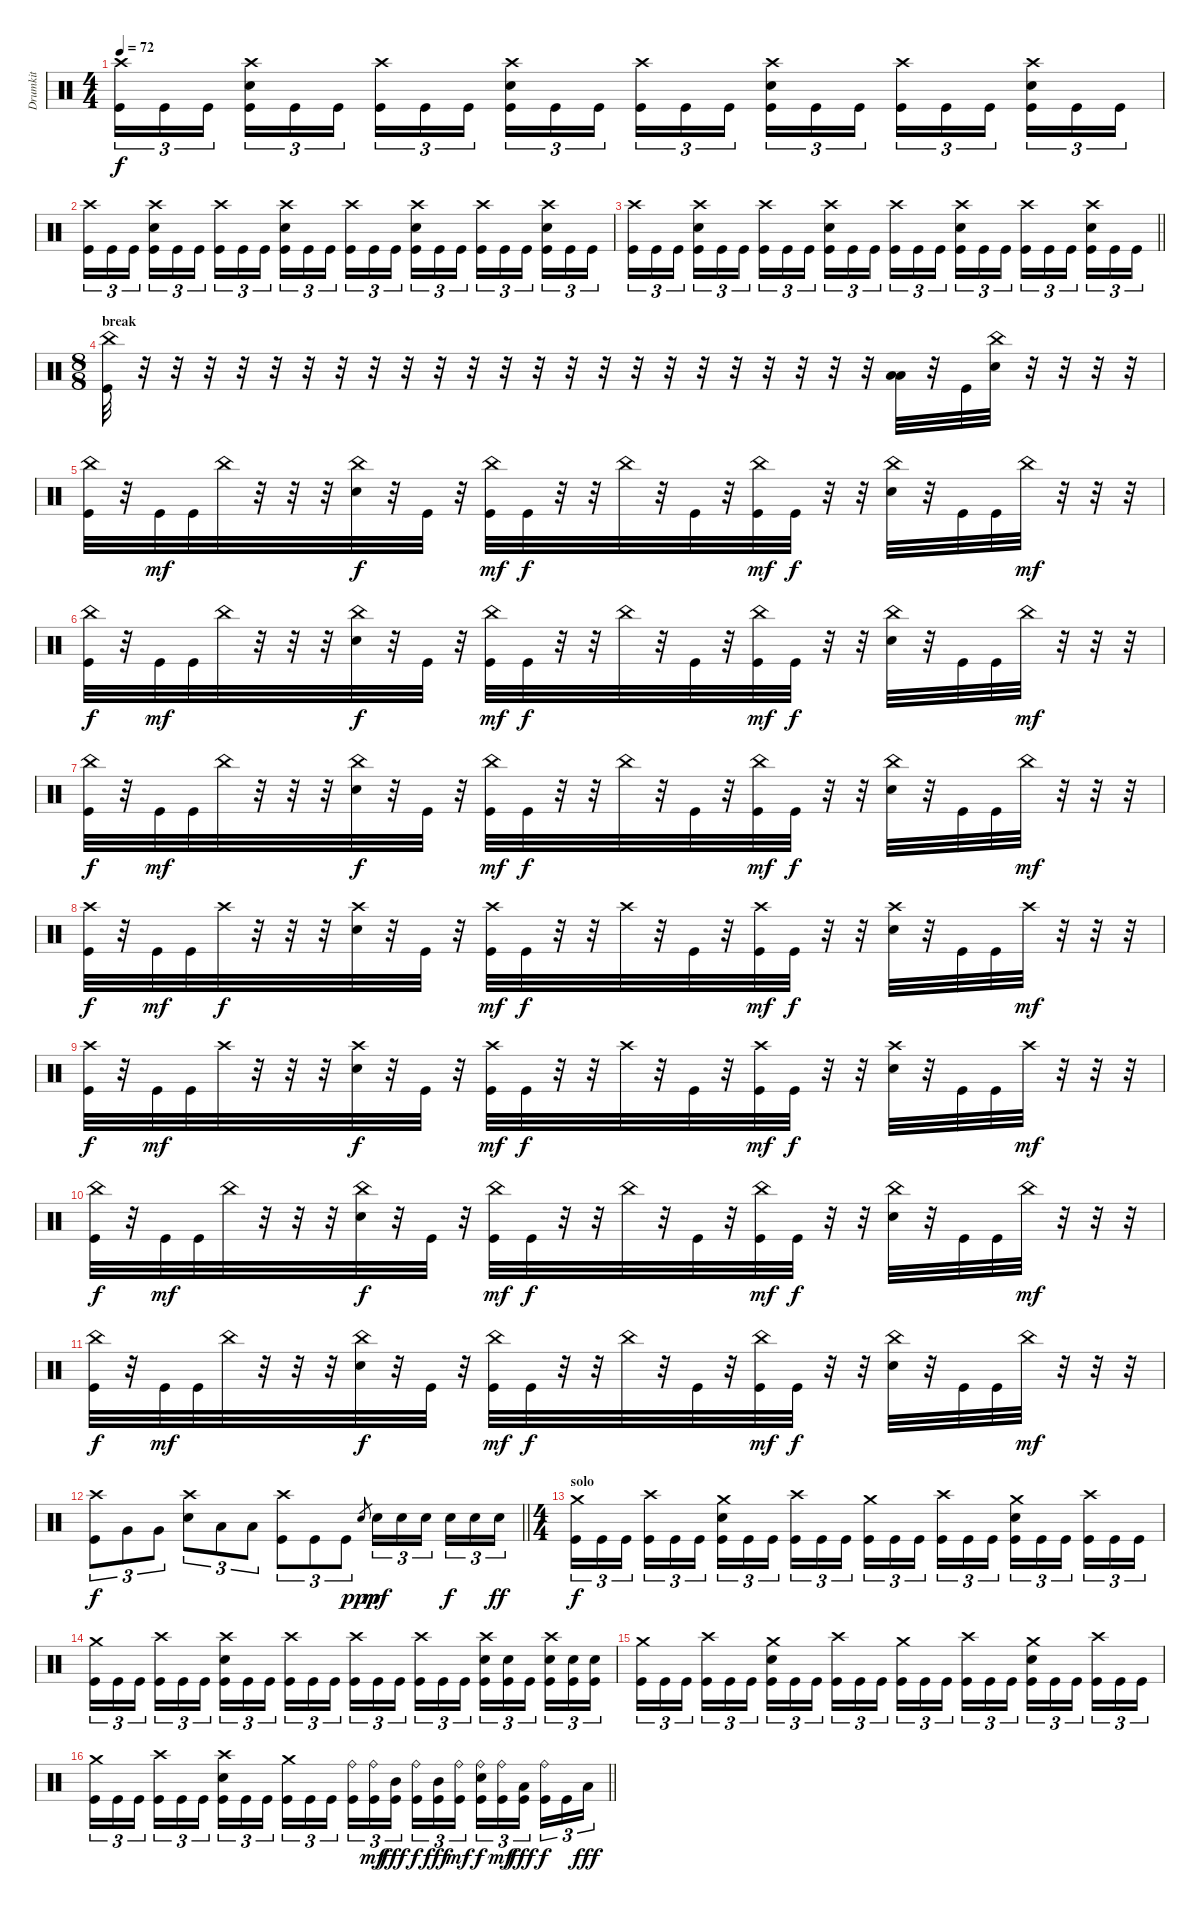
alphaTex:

\track ("Drumkit" "Drumkit") {instrument percussion}
\staff
\articulation defaults
\ts (4 4)
\tempo 72
\clef neutral
\ks c
("Crash high (hit)" "Kick (hit)").16{tu (3 2) dy f} "Kick (hit)".16{tu (3 2)} "Kick (hit)".16{tu (3 2) beam splitsecondary} ("Crash high (hit)" "Snare (hit) 2" "Kick (hit)").16{tu (3 2)} "Kick (hit)".16{tu (3 2)} "Kick (hit)".16{tu (3 2)} ("Crash high (hit)" "Kick (hit)").16{tu (3 2)} "Kick (hit)".16{tu (3 2)} "Kick (hit)".16{tu (3 2) beam splitsecondary} ("Crash high (hit)" "Snare (hit) 2" "Kick (hit)").16{tu (3 2)} "Kick (hit)".16{tu (3 2)} "Kick (hit)".16{tu (3 2)} ("Crash high (hit)" "Kick (hit)").16{tu (3 2)} "Kick (hit)".16{tu (3 2)} "Kick (hit)".16{tu (3 2) beam splitsecondary} ("Crash high (hit)" "Snare (hit) 2" "Kick (hit)").16{tu (3 2)} "Kick (hit)".16{tu (3 2)} "Kick (hit)".16{tu (3 2)} ("Crash high (hit)" "Kick (hit)").16{tu (3 2)} "Kick (hit)".16{tu (3 2)} "Kick (hit)".16{tu (3 2) beam splitsecondary} ("Crash high (hit)" "Snare (hit) 2" "Kick (hit)").16{tu (3 2)} "Kick (hit)".16{tu (3 2)} "Kick (hit)".16{tu (3 2)} |
("Crash high (hit)" "Kick (hit)").16{tu (3 2)} "Kick (hit)".16{tu (3 2)} "Kick (hit)".16{tu (3 2) beam splitsecondary} ("Crash high (hit)" "Snare (hit) 2" "Kick (hit)").16{tu (3 2)} "Kick (hit)".16{tu (3 2)} "Kick (hit)".16{tu (3 2)} ("Crash high (hit)" "Kick (hit)").16{tu (3 2)} "Kick (hit)".16{tu (3 2)} "Kick (hit)".16{tu (3 2) beam splitsecondary} ("Crash high (hit)" "Snare (hit) 2" "Kick (hit)").16{tu (3 2)} "Kick (hit)".16{tu (3 2)} "Kick (hit)".16{tu (3 2)} ("Crash high (hit)" "Kick (hit)").16{tu (3 2)} "Kick (hit)".16{tu (3 2)} "Kick (hit)".16{tu (3 2) beam splitsecondary} ("Crash high (hit)" "Snare (hit) 2" "Kick (hit)").16{tu (3 2)} "Kick (hit)".16{tu (3 2)} "Kick (hit)".16{tu (3 2)} ("Crash high (hit)" "Kick (hit)").16{tu (3 2)} "Kick (hit)".16{tu (3 2)} "Kick (hit)".16{tu (3 2) beam splitsecondary} ("Crash high (hit)" "Snare (hit) 2" "Kick (hit)").16{tu (3 2)} "Kick (hit)".16{tu (3 2)} "Kick (hit)".16{tu (3 2)} |
\barLineRight lightlight
("Crash high (hit)" "Kick (hit)").16{tu (3 2)} "Kick (hit)".16{tu (3 2)} "Kick (hit)".16{tu (3 2) beam splitsecondary} ("Crash high (hit)" "Snare (hit) 2" "Kick (hit)").16{tu (3 2)} "Kick (hit)".16{tu (3 2)} "Kick (hit)".16{tu (3 2)} ("Crash high (hit)" "Kick (hit)").16{tu (3 2)} "Kick (hit)".16{tu (3 2)} "Kick (hit)".16{tu (3 2) beam splitsecondary} ("Crash high (hit)" "Snare (hit) 2" "Kick (hit)").16{tu (3 2)} "Kick (hit)".16{tu (3 2)} "Kick (hit)".16{tu (3 2)} ("Crash high (hit)" "Kick (hit)").16{tu (3 2)} "Kick (hit)".16{tu (3 2)} "Kick (hit)".16{tu (3 2) beam splitsecondary} ("Crash high (hit)" "Snare (hit) 2" "Kick (hit)").16{tu (3 2)} "Kick (hit)".16{tu (3 2)} "Kick (hit)".16{tu (3 2)} ("Crash high (hit)" "Kick (hit)").16{tu (3 2)} "Kick (hit)".16{tu (3 2)} "Kick (hit)".16{tu (3 2) beam splitsecondary} ("Crash high (hit)" "Snare (hit) 2" "Kick (hit)").16{tu (3 2)} "Kick (hit)".16{tu (3 2)} "Kick (hit)".16{tu (3 2)} |
\ts (8 8)
\section ("" "break")
("China (hit)" "Kick (hit)").32 r.32 r.32 r.32 r.32 r.32 r.32 r.32 r.32 r.32 r.32 r.32 r.32 r.32 r.32 r.32 r.32 r.32 r.32 r.32 r.32 r.32 r.32 r.32 ("Low Tom (hit)" "Low Floor Tom (hit)").32 r.32 "Kick (hit)".32 ("China (hit)" "Snare (hit) 2").32 r.32 r.32 r.32 r.32 |
("China (hit)" "Kick (hit)").32 r.32 "Kick (hit)".32{dy mf} "Kick (hit)".32 "China (hit)".32 r.32 r.32 r.32 ("China (hit)" "Snare (hit) 2").32{dy f} r.32 "Kick (hit)".32 r.32 ("China (hit)" "Kick (hit)").32{dy mf} "Kick (hit)".32{dy f} r.32 r.32 "China (hit)".32 r.32 "Kick (hit)".32 r.32 ("China (hit)" "Kick (hit)").32{dy mf} "Kick (hit)".32{dy f} r.32 r.32 ("China (hit)" "Snare (hit) 2").32 r.32 "Kick (hit)".32 "Kick (hit)".32 "China (hit)".32{dy mf} r.32 r.32 r.32 |
("China (hit)" "Kick (hit)").32{dy f} r.32 "Kick (hit)".32{dy mf} "Kick (hit)".32 "China (hit)".32 r.32 r.32 r.32 ("China (hit)" "Snare (hit) 2").32{dy f} r.32 "Kick (hit)".32 r.32 ("China (hit)" "Kick (hit)").32{dy mf} "Kick (hit)".32{dy f} r.32 r.32 "China (hit)".32 r.32 "Kick (hit)".32 r.32 ("China (hit)" "Kick (hit)").32{dy mf} "Kick (hit)".32{dy f} r.32 r.32 ("China (hit)" "Snare (hit) 2").32 r.32 "Kick (hit)".32 "Kick (hit)".32 "China (hit)".32{dy mf} r.32 r.32 r.32 |
("China (hit)" "Kick (hit)").32{dy f} r.32 "Kick (hit)".32{dy mf} "Kick (hit)".32 "China (hit)".32 r.32 r.32 r.32 ("China (hit)" "Snare (hit) 2").32{dy f} r.32 "Kick (hit)".32 r.32 ("China (hit)" "Kick (hit)").32{dy mf} "Kick (hit)".32{dy f} r.32 r.32 "China (hit)".32 r.32 "Kick (hit)".32 r.32 ("China (hit)" "Kick (hit)").32{dy mf} "Kick (hit)".32{dy f} r.32 r.32 ("China (hit)" "Snare (hit) 2").32 r.32 "Kick (hit)".32 "Kick (hit)".32 "China (hit)".32{dy mf} r.32 r.32 r.32 |
("Crash high (hit)" "Kick (hit)").32{dy f} r.32 "Kick (hit)".32{dy mf} "Kick (hit)".32 "Crash high (hit)".32{dy f} r.32 r.32 r.32 ("Crash high (hit)" "Snare (hit) 2").32 r.32 "Kick (hit)".32 r.32 ("Crash high (hit)" "Kick (hit)").32{dy mf} "Kick (hit)".32{dy f} r.32 r.32 "Crash high (hit)".32 r.32 "Kick (hit)".32 r.32 ("Crash high (hit)" "Kick (hit)").32{dy mf} "Kick (hit)".32{dy f} r.32 r.32 ("Crash high (hit)" "Snare (hit) 2").32 r.32 "Kick (hit)".32 "Kick (hit)".32 "Crash high (hit)".32{dy mf} r.32 r.32 r.32 |
("Crash high (hit)" "Kick (hit)").32{dy f} r.32 "Kick (hit)".32{dy mf} "Kick (hit)".32 "Crash high (hit)".32 r.32 r.32 r.32 ("Crash high (hit)" "Snare (hit) 2").32{dy f} r.32 "Kick (hit)".32 r.32 ("Crash high (hit)" "Kick (hit)").32{dy mf} "Kick (hit)".32{dy f} r.32 r.32 "Crash high (hit)".32 r.32 "Kick (hit)".32 r.32 ("Crash high (hit)" "Kick (hit)").32{dy mf} "Kick (hit)".32{dy f} r.32 r.32 ("Crash high (hit)" "Snare (hit) 2").32 r.32 "Kick (hit)".32 "Kick (hit)".32 "Crash high (hit)".32{dy mf} r.32 r.32 r.32 |
("China (hit)" "Kick (hit)").32{dy f} r.32 "Kick (hit)".32{dy mf} "Kick (hit)".32 "China (hit)".32 r.32 r.32 r.32 ("China (hit)" "Snare (hit) 2").32{dy f} r.32 "Kick (hit)".32 r.32 ("China (hit)" "Kick (hit)").32{dy mf} "Kick (hit)".32{dy f} r.32 r.32 "China (hit)".32 r.32 "Kick (hit)".32 r.32 ("China (hit)" "Kick (hit)").32{dy mf} "Kick (hit)".32{dy f} r.32 r.32 ("China (hit)" "Snare (hit) 2").32 r.32 "Kick (hit)".32 "Kick (hit)".32 "China (hit)".32{dy mf} r.32 r.32 r.32 |
("China (hit)" "Kick (hit)").32{dy f} r.32 "Kick (hit)".32{dy mf} "Kick (hit)".32 "China (hit)".32 r.32 r.32 r.32 ("China (hit)" "Snare (hit) 2").32{dy f} r.32 "Kick (hit)".32 r.32 ("China (hit)" "Kick (hit)").32{dy mf} "Kick (hit)".32{dy f} r.32 r.32 "China (hit)".32 r.32 "Kick (hit)".32 r.32 ("China (hit)" "Kick (hit)").32{dy mf} "Kick (hit)".32{dy f} r.32 r.32 ("China (hit)" "Snare (hit) 2").32 r.32 "Kick (hit)".32 "Kick (hit)".32 "China (hit)".32{dy mf} r.32 r.32 r.32 |
\barLineRight lightlight
("Crash high (hit)" "Kick (hit)").8{tu (3 2) dy f} "Very Low Tom (hit)".8{tu (3 2)} "Very Low Tom (hit)".8{tu (3 2)} ("Crash high (hit)" "Snare (hit) 2").8{tu (3 2)} "Low Floor Tom (hit)".8{tu (3 2)} "Low Floor Tom (hit)".8{tu (3 2)} ("Crash high (hit)" "Kick (hit)").8{tu (3 2)} "Kick (hit)".8{tu (3 2)} "Kick (hit)".8{tu (3 2)} "Snare (hit)".8{gr dy ppp} "Snare (hit) 2".16{tu (3 2) dy mf} "Snare (hit) 2".16{tu (3 2)} "Snare (hit) 2".16{tu (3 2)} "Snare (hit) 2".16{tu (3 2) dy f} "Snare (hit) 2".16{tu (3 2)} "Snare (hit) 2".16{tu (3 2) dy ff} |
\ts (4 4)
\section ("" "solo")
("Crash medium (hit)" "Kick (hit)").16{tu (3 2) dy f} "Kick (hit)".16{tu (3 2)} "Kick (hit)".16{tu (3 2) beam splitsecondary} ("Crash high (hit)" "Kick (hit)").16{tu (3 2)} "Kick (hit)".16{tu (3 2)} "Kick (hit)".16{tu (3 2)} ("Crash medium (hit)" "Snare (hit) 2" "Kick (hit)").16{tu (3 2)} "Kick (hit)".16{tu (3 2)} "Kick (hit)".16{tu (3 2) beam splitsecondary} ("Crash high (hit)" "Kick (hit)").16{tu (3 2)} "Kick (hit)".16{tu (3 2)} "Kick (hit)".16{tu (3 2)} ("Crash medium (hit)" "Kick (hit)").16{tu (3 2)} "Kick (hit)".16{tu (3 2)} "Kick (hit)".16{tu (3 2) beam splitsecondary} ("Crash high (hit)" "Kick (hit)").16{tu (3 2)} "Kick (hit)".16{tu (3 2)} "Kick (hit)".16{tu (3 2)} ("Crash medium (hit)" "Snare (hit) 2" "Kick (hit)").16{tu (3 2)} "Kick (hit)".16{tu (3 2)} "Kick (hit)".16{tu (3 2) beam splitsecondary} ("Crash high (hit)" "Kick (hit)").16{tu (3 2)} "Kick (hit)".16{tu (3 2)} "Kick (hit)".16{tu (3 2)} |
("Crash medium (hit)" "Kick (hit)").16{tu (3 2)} "Kick (hit)".16{tu (3 2)} "Kick (hit)".16{tu (3 2) beam splitsecondary} ("Crash high (hit)" "Kick (hit)").16{tu (3 2)} "Kick (hit)".16{tu (3 2)} "Kick (hit)".16{tu (3 2)} ("Crash high (hit)" "Snare (hit) 2" "Kick (hit)").16{tu (3 2)} "Kick (hit)".16{tu (3 2)} "Kick (hit)".16{tu (3 2) beam splitsecondary} ("Crash high (hit)" "Kick (hit)").16{tu (3 2)} "Kick (hit)".16{tu (3 2)} "Kick (hit)".16{tu (3 2)} ("Crash high (hit)" "Kick (hit)").16{tu (3 2)} "Kick (hit)".16{tu (3 2)} "Kick (hit)".16{tu (3 2) beam splitsecondary} ("Crash high (hit)" "Kick (hit)").16{tu (3 2)} "Kick (hit)".16{tu (3 2)} "Kick (hit)".16{tu (3 2)} ("Crash high (hit)" "Snare (hit) 2" "Kick (hit)").16{tu (3 2)} ("Snare (hit) 2" "Kick (hit)").16{tu (3 2)} "Kick (hit)".16{tu (3 2) beam splitsecondary} ("Crash high (hit)" "Snare (hit) 2" "Kick (hit)").16{tu (3 2)} ("Snare (hit) 2" "Kick (hit)").16{tu (3 2)} ("Snare (hit) 2" "Kick (hit)").16{tu (3 2)} |
("Crash medium (hit)" "Kick (hit)").16{tu (3 2)} "Kick (hit)".16{tu (3 2)} "Kick (hit)".16{tu (3 2) beam splitsecondary} ("Crash high (hit)" "Kick (hit)").16{tu (3 2)} "Kick (hit)".16{tu (3 2)} "Kick (hit)".16{tu (3 2)} ("Crash medium (hit)" "Snare (hit) 2" "Kick (hit)").16{tu (3 2)} "Kick (hit)".16{tu (3 2)} "Kick (hit)".16{tu (3 2) beam splitsecondary} ("Crash high (hit)" "Kick (hit)").16{tu (3 2)} "Kick (hit)".16{tu (3 2)} "Kick (hit)".16{tu (3 2)} ("Crash medium (hit)" "Kick (hit)").16{tu (3 2)} "Kick (hit)".16{tu (3 2)} "Kick (hit)".16{tu (3 2) beam splitsecondary} ("Crash high (hit)" "Kick (hit)").16{tu (3 2)} "Kick (hit)".16{tu (3 2)} "Kick (hit)".16{tu (3 2)} ("Crash medium (hit)" "Snare (hit) 2" "Kick (hit)").16{tu (3 2)} "Kick (hit)".16{tu (3 2)} "Kick (hit)".16{tu (3 2) beam splitsecondary} ("Crash high (hit)" "Kick (hit)").16{tu (3 2)} "Kick (hit)".16{tu (3 2)} "Kick (hit)".16{tu (3 2)} |
\barLineRight lightlight
("Crash medium (hit)" "Kick (hit)").16{tu (3 2)} "Kick (hit)".16{tu (3 2)} "Kick (hit)".16{tu (3 2) beam splitsecondary} ("Crash high (hit)" "Kick (hit)").16{tu (3 2)} "Kick (hit)".16{tu (3 2)} "Kick (hit)".16{tu (3 2)} ("Crash high (hit)" "Snare (hit) 2" "Kick (hit)").16{tu (3 2)} "Kick (hit)".16{tu (3 2)} "Kick (hit)".16{tu (3 2) beam splitsecondary} ("Crash medium (hit)" "Kick (hit)").16{tu (3 2)} "Kick (hit)".16{tu (3 2)} "Kick (hit)".16{tu (3 2)} ("Ride (bell)" "Kick (hit)").16{tu (3 2)} ("Ride (bell)" "Kick (hit)").16{tu (3 2) dy mf} ("Mid Tom (hit)" "Kick (hit)").16{tu (3 2) dy fff beam splitsecondary} ("Ride (bell)" "Kick (hit)").16{tu (3 2) dy f} ("Mid Tom (hit)" "Kick (hit)").16{tu (3 2) dy fff} ("Ride (bell)" "Kick (hit)").16{tu (3 2) dy mf} ("Ride (bell)" "Snare (hit) 2" "Kick (hit)").16{tu (3 2) dy f} ("Ride (bell)" "Kick (hit)").16{tu (3 2) dy mf} ("Low Tom (hit)" "Kick (hit)").16{tu (3 2) dy fff beam splitsecondary} ("Ride (bell)" "Kick (hit)").16{tu (3 2) dy f} "Kick (hit)".16{tu (3 2)} "Low Floor Tom (hit)".16{tu (3 2) dy fff}
